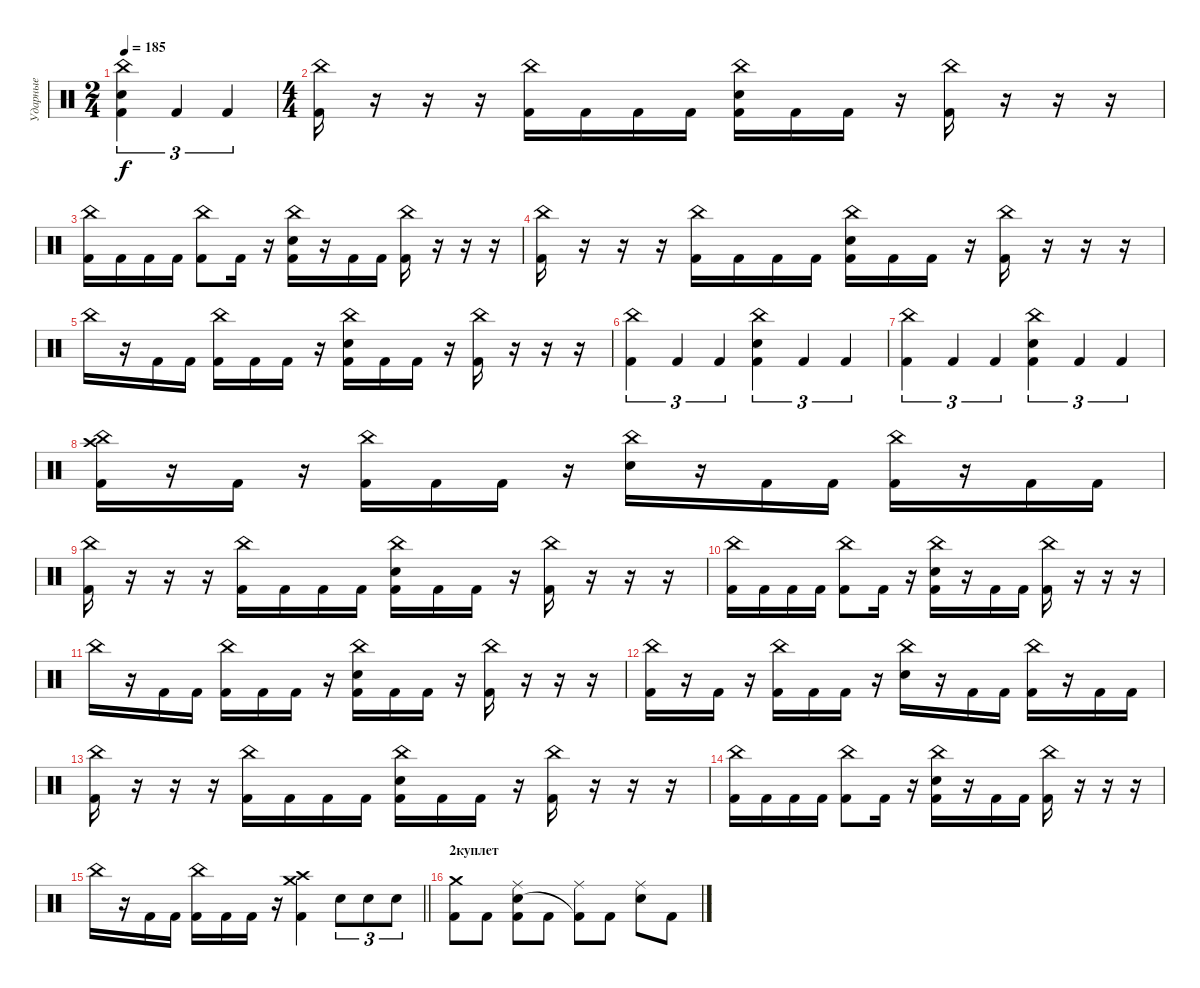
\track ("Ударные" "Ударные") {instrument percussion}
\staff {score}
\articulation defaults
\ts (2 4)
\tempo 185
\clef neutral
\ks c
("China (hit)" "Electric Snare (hit)" "Kick (hit) 2").4{tu (3 2) dy f} "Kick (hit) 2".4{tu (3 2)} "Kick (hit) 2".4{tu (3 2)} |
\ts (4 4)
("China (hit)" "Kick (hit) 2").16 r.16 r.16 r.16 ("China (hit)" "Kick (hit) 2").16 "Kick (hit) 2".16 "Kick (hit) 2".16 "Kick (hit) 2".16 ("China (hit)" "Electric Snare (hit)" "Kick (hit) 2").16 "Kick (hit) 2".16 "Kick (hit) 2".16 r.16 ("China (hit)" "Kick (hit) 2").16 r.16 r.16 r.16 |
("China (hit)" "Kick (hit) 2").16 "Kick (hit) 2".16 "Kick (hit) 2".16 "Kick (hit) 2".16 ("China (hit)" "Kick (hit) 2").8 "Kick (hit) 2".16 r.16 ("China (hit)" "Electric Snare (hit)" "Kick (hit) 2").16 r.16 "Kick (hit) 2".16 "Kick (hit) 2".16 ("China (hit)" "Kick (hit) 2").16 r.16 r.16 r.16 |
("China (hit)" "Kick (hit) 2").16 r.16 r.16 r.16 ("China (hit)" "Kick (hit) 2").16 "Kick (hit) 2".16 "Kick (hit) 2".16 "Kick (hit) 2".16 ("China (hit)" "Electric Snare (hit)" "Kick (hit) 2").16 "Kick (hit) 2".16 "Kick (hit) 2".16 r.16 ("China (hit)" "Kick (hit) 2").16 r.16 r.16 r.16 |
"China (hit)".16 r.16 "Kick (hit) 2".16 "Kick (hit) 2".16 ("China (hit)" "Kick (hit) 2").16 "Kick (hit) 2".16 "Kick (hit) 2".16 r.16 ("China (hit)" "Electric Snare (hit)" "Kick (hit) 2").16 "Kick (hit) 2".16 "Kick (hit) 2".16 r.16 ("China (hit)" "Kick (hit) 2").16 r.16 r.16 r.16 |
("China (hit)" "Kick (hit) 2").4{tu (3 2)} "Kick (hit) 2".4{tu (3 2)} "Kick (hit) 2".4{tu (3 2)} ("China (hit)" "Electric Snare (hit)" "Kick (hit) 2").4{tu (3 2)} "Kick (hit) 2".4{tu (3 2)} "Kick (hit) 2".4{tu (3 2)} |
("China (hit)" "Kick (hit) 2").4{tu (3 2)} "Kick (hit) 2".4{tu (3 2)} "Kick (hit) 2".4{tu (3 2)} ("China (hit)" "Electric Snare (hit)" "Kick (hit) 2").4{tu (3 2)} "Kick (hit) 2".4{tu (3 2)} "Kick (hit) 2".4{tu (3 2)} |
("China (hit)" "Crash high (hit)" "Kick (hit) 2").16 r.16 "Kick (hit) 2".16 r.16 ("China (hit)" "Kick (hit) 2").16 "Kick (hit) 2".16 "Kick (hit) 2".16 r.16 ("China (hit)" "Electric Snare (hit)").16 r.16 "Kick (hit) 2".16 "Kick (hit) 2".16 ("China (hit)" "Kick (hit) 2").16 r.16 "Kick (hit) 2".16 "Kick (hit) 2".16 |
("China (hit)" "Kick (hit) 2").16 r.16 r.16 r.16 ("China (hit)" "Kick (hit) 2").16 "Kick (hit) 2".16 "Kick (hit) 2".16 "Kick (hit) 2".16 ("China (hit)" "Electric Snare (hit)" "Kick (hit) 2").16 "Kick (hit) 2".16 "Kick (hit) 2".16 r.16 ("China (hit)" "Kick (hit) 2").16 r.16 r.16 r.16 |
("China (hit)" "Kick (hit) 2").16 "Kick (hit) 2".16 "Kick (hit) 2".16 "Kick (hit) 2".16 ("China (hit)" "Kick (hit) 2").8 "Kick (hit) 2".16 r.16 ("China (hit)" "Electric Snare (hit)" "Kick (hit) 2").16 r.16 "Kick (hit) 2".16 "Kick (hit) 2".16 ("China (hit)" "Kick (hit) 2").16 r.16 r.16 r.16 |
"China (hit)".16 r.16 "Kick (hit) 2".16 "Kick (hit) 2".16 ("China (hit)" "Kick (hit) 2").16 "Kick (hit) 2".16 "Kick (hit) 2".16 r.16 ("China (hit)" "Electric Snare (hit)" "Kick (hit) 2").16 "Kick (hit) 2".16 "Kick (hit) 2".16 r.16 ("China (hit)" "Kick (hit) 2").16 r.16 r.16 r.16 |
("China (hit)" "Kick (hit) 2").16 r.16 "Kick (hit) 2".16 r.16 ("China (hit)" "Kick (hit) 2").16 "Kick (hit) 2".16 "Kick (hit) 2".16 r.16 ("China (hit)" "Electric Snare (hit)").16 r.16 "Kick (hit) 2".16 "Kick (hit) 2".16 ("China (hit)" "Kick (hit) 2").16 r.16 "Kick (hit) 2".16 "Kick (hit) 2".16 |
("China (hit)" "Kick (hit) 2").16 r.16 r.16 r.16 ("China (hit)" "Kick (hit) 2").16 "Kick (hit) 2".16 "Kick (hit) 2".16 "Kick (hit) 2".16 ("China (hit)" "Electric Snare (hit)" "Kick (hit) 2").16 "Kick (hit) 2".16 "Kick (hit) 2".16 r.16 ("China (hit)" "Kick (hit) 2").16 r.16 r.16 r.16 |
("China (hit)" "Kick (hit) 2").16 "Kick (hit) 2".16 "Kick (hit) 2".16 "Kick (hit) 2".16 ("China (hit)" "Kick (hit) 2").8 "Kick (hit) 2".16 r.16 ("China (hit)" "Electric Snare (hit)" "Kick (hit) 2").16 r.16 "Kick (hit) 2".16 "Kick (hit) 2".16 ("China (hit)" "Kick (hit) 2").16 r.16 r.16 r.16 |
\barLineRight lightlight "China (hit)".16
r.16 "Kick (hit) 2".16 "Kick (hit) 2".16 ("China (hit)" "Kick (hit) 2").16 "Kick (hit) 2".16 "Kick (hit) 2".16 r.16 ("Crash high (hit)" "Crash medium (hit)" "Kick (hit) 2").4 "Electric Snare (hit)".8{tu (3 2)} "Electric Snare (hit)".8{tu (3 2)} "Electric Snare (hit)".8{tu (3 2)} |
\section ("" "2куплет")
("Crash medium (hit)" "Kick (hit) 2").8 "Kick (hit) 2".8 ("Ride (middle)" "Electric Snare (hit)" "Kick (hit) 2").8 "Kick (hit) 2".8 ("Ride (middle)" "Kick (hit) 2"{t}).8 "Kick (hit) 2".8 ("Ride (middle)" "Electric Snare (hit)").8 "Kick (hit) 2".8
